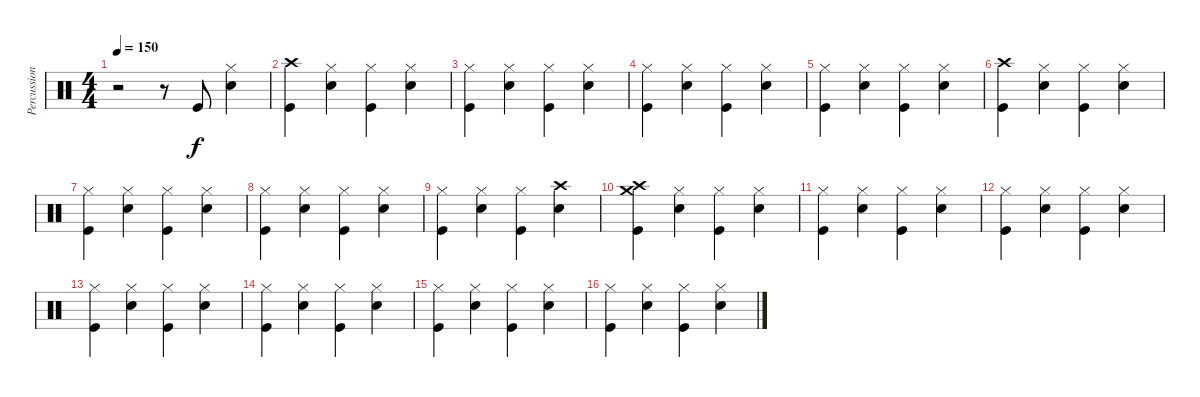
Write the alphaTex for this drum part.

\track ("Percussion" "Percussion") {instrument percussion}
\staff {score}
\articulation defaults
\ts (4 4)
\tempo 150
\clef neutral
\ks c
r.2{dy f} r.8 "Kick (hit)".8 ("Hi-Hat (closed)" "Electric Snare (hit)").4 |
("Crash high (hit)" "Kick (hit)").4 ("Hi-Hat (closed)" "Electric Snare (hit)").4 ("Hi-Hat (closed)" "Kick (hit)").4 ("Hi-Hat (closed)" "Electric Snare (hit)").4 |
("Hi-Hat (closed)" "Kick (hit)").4 ("Hi-Hat (closed)" "Electric Snare (hit)").4 ("Hi-Hat (closed)" "Kick (hit)").4 ("Hi-Hat (closed)" "Electric Snare (hit)").4 |
("Hi-Hat (closed)" "Kick (hit)").4 ("Hi-Hat (closed)" "Electric Snare (hit)").4 ("Hi-Hat (closed)" "Kick (hit)").4 ("Hi-Hat (closed)" "Electric Snare (hit)").4 |
("Hi-Hat (closed)" "Kick (hit)").4 ("Hi-Hat (closed)" "Electric Snare (hit)").4 ("Hi-Hat (closed)" "Kick (hit)").4 ("Hi-Hat (closed)" "Electric Snare (hit)").4 |
("Crash high (hit)" "Kick (hit)").4 ("Hi-Hat (closed)" "Electric Snare (hit)").4 ("Hi-Hat (closed)" "Kick (hit)").4 ("Hi-Hat (closed)" "Electric Snare (hit)").4 |
("Hi-Hat (closed)" "Kick (hit)").4 ("Hi-Hat (closed)" "Electric Snare (hit)").4 ("Hi-Hat (closed)" "Kick (hit)").4 ("Hi-Hat (closed)" "Electric Snare (hit)").4 |
("Hi-Hat (closed)" "Kick (hit)").4 ("Hi-Hat (closed)" "Electric Snare (hit)").4 ("Hi-Hat (closed)" "Kick (hit)").4 ("Hi-Hat (closed)" "Electric Snare (hit)").4 |
("Hi-Hat (closed)" "Kick (hit)").4 ("Hi-Hat (closed)" "Electric Snare (hit)").4 ("Hi-Hat (closed)" "Kick (hit)").4 ("Crash high (hit)" "Electric Snare (hit)").4 |
("Crash medium (hit)" "Crash high (hit)" "Kick (hit)").4 ("Hi-Hat (closed)" "Electric Snare (hit)").4 ("Hi-Hat (closed)" "Kick (hit)").4 ("Hi-Hat (closed)" "Electric Snare (hit)").4 |
("Hi-Hat (closed)" "Kick (hit)").4 ("Hi-Hat (closed)" "Electric Snare (hit)").4 ("Hi-Hat (closed)" "Kick (hit)").4 ("Hi-Hat (closed)" "Electric Snare (hit)").4 |
("Hi-Hat (closed)" "Kick (hit)").4 ("Hi-Hat (closed)" "Electric Snare (hit)").4 ("Hi-Hat (closed)" "Kick (hit)").4 ("Hi-Hat (closed)" "Electric Snare (hit)").4 |
("Hi-Hat (closed)" "Kick (hit)").4 ("Hi-Hat (closed)" "Electric Snare (hit)").4 ("Hi-Hat (closed)" "Kick (hit)").4 ("Hi-Hat (closed)" "Electric Snare (hit)").4 |
("Hi-Hat (closed)" "Kick (hit)").4 ("Hi-Hat (closed)" "Electric Snare (hit)").4 ("Hi-Hat (closed)" "Kick (hit)").4 ("Hi-Hat (closed)" "Electric Snare (hit)").4 |
("Hi-Hat (closed)" "Kick (hit)").4 ("Hi-Hat (closed)" "Electric Snare (hit)").4 ("Hi-Hat (closed)" "Kick (hit)").4 ("Hi-Hat (closed)" "Electric Snare (hit)").4 |
("Hi-Hat (closed)" "Kick (hit)").4 ("Hi-Hat (closed)" "Electric Snare (hit)").4 ("Hi-Hat (closed)" "Kick (hit)").4 ("Hi-Hat (closed)" "Electric Snare (hit)").4
